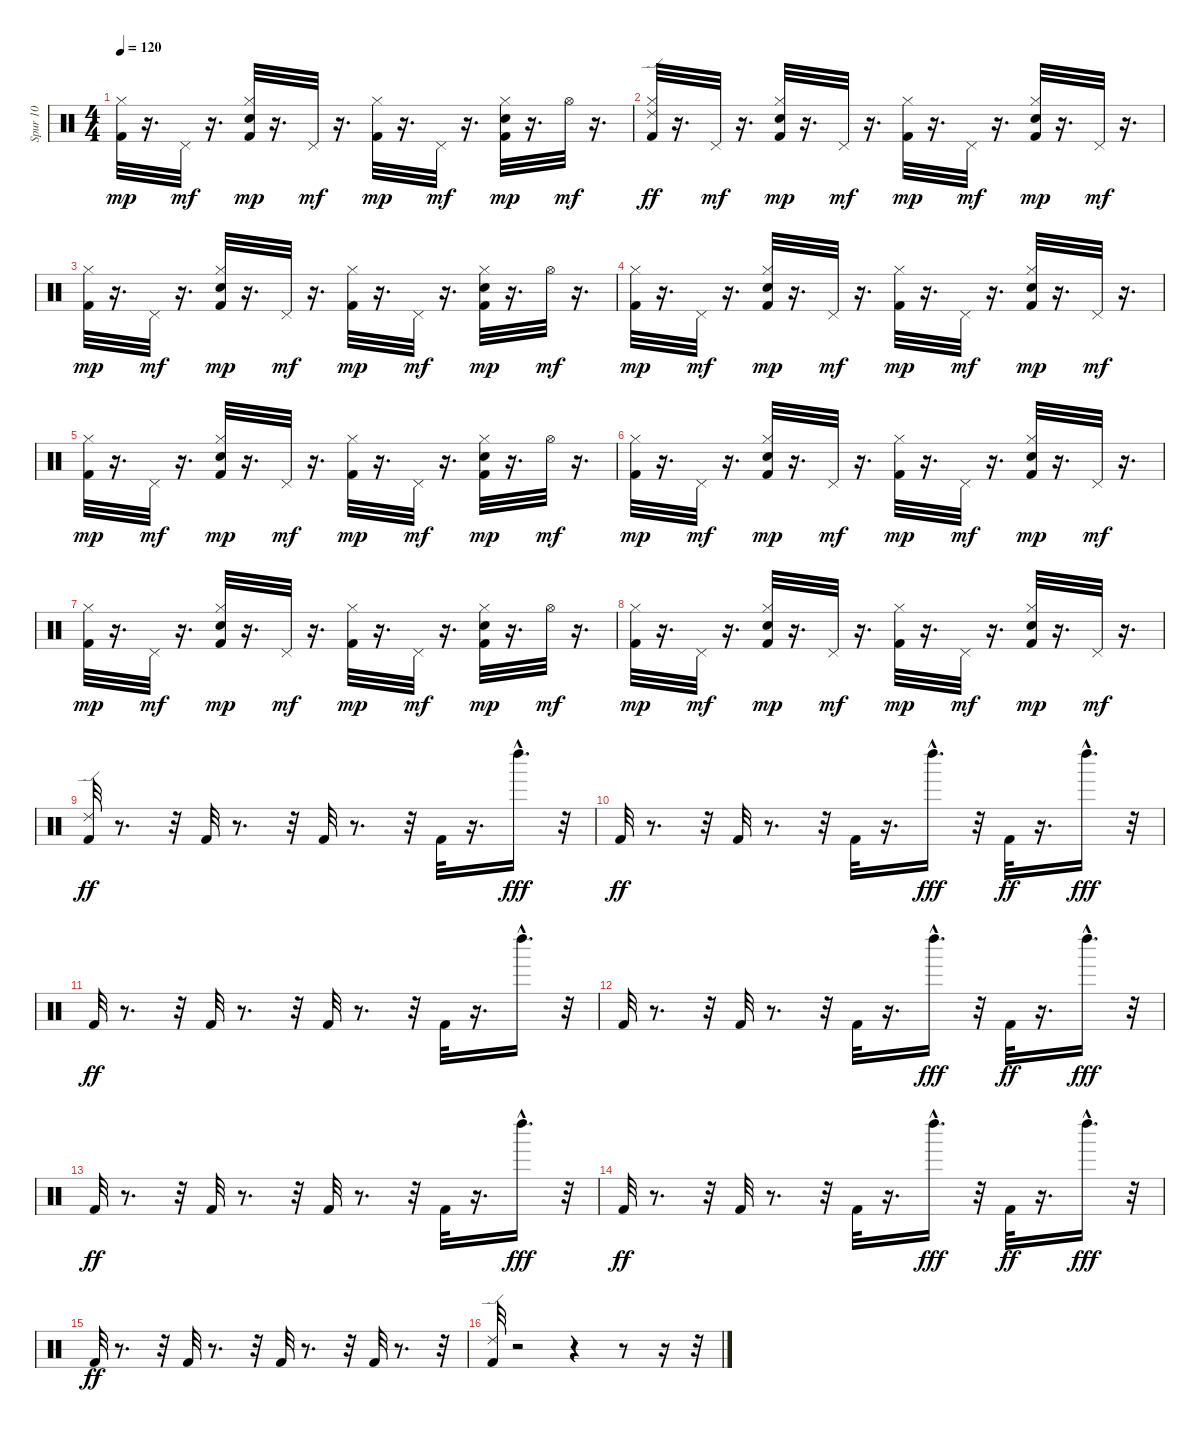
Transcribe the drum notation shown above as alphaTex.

\track ("Spur 10" "Spur 10") {instrument percussion}
\staff {score}
\articulation defaults
\ts (4 4)
\tempo 120
\clef neutral
\ks c
("Kick (hit) 2" "Hi-Hat (closed)").32{dy mp} r.16{d} "Pedal Hi-Hat (hit)".32{dy mf} r.16{d} ("Kick (hit) 2" "Electric Snare (hit)" "Hi-Hat (closed)").32{dy mp} r.16{d} "Pedal Hi-Hat (hit)".32{dy mf} r.16{d} ("Kick (hit) 2" "Hi-Hat (closed)").32{dy mp} r.16{d} "Pedal Hi-Hat (hit)".32{dy mf} r.16{d} ("Kick (hit) 2" "Electric Snare (hit)" "Hi-Hat (closed)").32{dy mp} r.16{d} "Hi-Hat (open)".32{dy mf} r.16{d} |
("Ride (edge) 2" "Hi-Hat (closed)" "Kick (hit) 2").32{dy ff} r.16{d} "Pedal Hi-Hat (hit)".32{dy mf} r.16{d} ("Hi-Hat (closed)" "Kick (hit) 2" "Electric Snare (hit)").32{dy mp} r.16{d} "Pedal Hi-Hat (hit)".32{dy mf} r.16{d} ("Kick (hit) 2" "Hi-Hat (closed)").32{dy mp} r.16{d} "Pedal Hi-Hat (hit)".32{dy mf} r.16{d} ("Kick (hit) 2" "Electric Snare (hit)" "Hi-Hat (closed)").32{dy mp} r.16{d} "Pedal Hi-Hat (hit)".32{dy mf} r.16{d} |
("Kick (hit) 2" "Hi-Hat (closed)").32{dy mp} r.16{d} "Pedal Hi-Hat (hit)".32{dy mf} r.16{d} ("Kick (hit) 2" "Electric Snare (hit)" "Hi-Hat (closed)").32{dy mp} r.16{d} "Pedal Hi-Hat (hit)".32{dy mf} r.16{d} ("Kick (hit) 2" "Hi-Hat (closed)").32{dy mp} r.16{d} "Pedal Hi-Hat (hit)".32{dy mf} r.16{d} ("Kick (hit) 2" "Electric Snare (hit)" "Hi-Hat (closed)").32{dy mp} r.16{d} "Hi-Hat (open)".32{dy mf} r.16{d} |
("Kick (hit) 2" "Hi-Hat (closed)").32{dy mp} r.16{d} "Pedal Hi-Hat (hit)".32{dy mf} r.16{d} ("Kick (hit) 2" "Electric Snare (hit)" "Hi-Hat (closed)").32{dy mp} r.16{d} "Pedal Hi-Hat (hit)".32{dy mf} r.16{d} ("Kick (hit) 2" "Hi-Hat (closed)").32{dy mp} r.16{d} "Pedal Hi-Hat (hit)".32{dy mf} r.16{d} ("Kick (hit) 2" "Electric Snare (hit)" "Hi-Hat (closed)").32{dy mp} r.16{d} "Pedal Hi-Hat (hit)".32{dy mf} r.16{d} |
("Kick (hit) 2" "Hi-Hat (closed)").32{dy mp} r.16{d} "Pedal Hi-Hat (hit)".32{dy mf} r.16{d} ("Kick (hit) 2" "Electric Snare (hit)" "Hi-Hat (closed)").32{dy mp} r.16{d} "Pedal Hi-Hat (hit)".32{dy mf} r.16{d} ("Kick (hit) 2" "Hi-Hat (closed)").32{dy mp} r.16{d} "Pedal Hi-Hat (hit)".32{dy mf} r.16{d} ("Kick (hit) 2" "Electric Snare (hit)" "Hi-Hat (closed)").32{dy mp} r.16{d} "Hi-Hat (open)".32{dy mf} r.16{d} |
("Kick (hit) 2" "Hi-Hat (closed)").32{dy mp} r.16{d} "Pedal Hi-Hat (hit)".32{dy mf} r.16{d} ("Kick (hit) 2" "Electric Snare (hit)" "Hi-Hat (closed)").32{dy mp} r.16{d} "Pedal Hi-Hat (hit)".32{dy mf} r.16{d} ("Kick (hit) 2" "Hi-Hat (closed)").32{dy mp} r.16{d} "Pedal Hi-Hat (hit)".32{dy mf} r.16{d} ("Kick (hit) 2" "Electric Snare (hit)" "Hi-Hat (closed)").32{dy mp} r.16{d} "Pedal Hi-Hat (hit)".32{dy mf} r.16{d} |
("Kick (hit) 2" "Hi-Hat (closed)").32{dy mp} r.16{d} "Pedal Hi-Hat (hit)".32{dy mf} r.16{d} ("Kick (hit) 2" "Electric Snare (hit)" "Hi-Hat (closed)").32{dy mp} r.16{d} "Pedal Hi-Hat (hit)".32{dy mf} r.16{d} ("Kick (hit) 2" "Hi-Hat (closed)").32{dy mp} r.16{d} "Pedal Hi-Hat (hit)".32{dy mf} r.16{d} ("Kick (hit) 2" "Electric Snare (hit)" "Hi-Hat (closed)").32{dy mp} r.16{d} "Hi-Hat (open)".32{dy mf} r.16{d} |
("Kick (hit) 2" "Hi-Hat (closed)").32{dy mp} r.16{d} "Pedal Hi-Hat (hit)".32{dy mf} r.16{d} ("Kick (hit) 2" "Electric Snare (hit)" "Hi-Hat (closed)").32{dy mp} r.16{d} "Pedal Hi-Hat (hit)".32{dy mf} r.16{d} ("Kick (hit) 2" "Hi-Hat (closed)").32{dy mp} r.16{d} "Pedal Hi-Hat (hit)".32{dy mf} r.16{d} ("Kick (hit) 2" "Electric Snare (hit)" "Hi-Hat (closed)").32{dy mp} r.16{d} "Pedal Hi-Hat (hit)".32{dy mf} r.16{d} |
("Kick (hit) 2" "Ride (edge) 2").32{dy ff} r.8{d} r.32 "Kick (hit) 2".32 r.8{d} r.32 "Kick (hit) 2".32 r.8{d} r.32 "Kick (hit) 2".32 r.16{d} "Left Maraca (hit)"{hac}.16{d dy fff} r.32 |
"Kick (hit) 2".32{dy ff} r.8{d} r.32 "Kick (hit) 2".32 r.8{d} r.32 "Kick (hit) 2".32 r.16{d} "Left Maraca (hit)"{hac}.16{d dy fff} r.32 "Kick (hit) 2".32{dy ff} r.16{d} "Left Maraca (hit)"{hac}.16{d dy fff} r.32 |
"Kick (hit) 2".32{dy ff} r.8{d} r.32 "Kick (hit) 2".32 r.8{d} r.32 "Kick (hit) 2".32 r.8{d} r.32 "Kick (hit) 2".32 r.16{d} "Left Maraca (hit)"{hac}.16{d} r.32 |
"Kick (hit) 2".32 r.8{d} r.32 "Kick (hit) 2".32 r.8{d} r.32 "Kick (hit) 2".32 r.16{d} "Left Maraca (hit)"{hac}.16{d dy fff} r.32 "Kick (hit) 2".32{dy ff} r.16{d} "Left Maraca (hit)"{hac}.16{d dy fff} r.32 |
"Kick (hit) 2".32{dy ff} r.8{d} r.32 "Kick (hit) 2".32 r.8{d} r.32 "Kick (hit) 2".32 r.8{d} r.32 "Kick (hit) 2".32 r.16{d} "Left Maraca (hit)"{hac}.16{d dy fff} r.32 |
"Kick (hit) 2".32{dy ff} r.8{d} r.32 "Kick (hit) 2".32 r.8{d} r.32 "Kick (hit) 2".32 r.16{d} "Left Maraca (hit)"{hac}.16{d dy fff} r.32 "Kick (hit) 2".32{dy ff} r.16{d} "Left Maraca (hit)"{hac}.16{d dy fff} r.32 |
"Kick (hit) 2".32{dy ff} r.8{d} r.32 "Kick (hit) 2".32 r.8{d} r.32 "Kick (hit) 2".32 r.8{d} r.32 "Kick (hit) 2".32 r.8{d} r.32 |
("Kick (hit) 2" "Ride (edge) 2").32 r.2 r.4 r.8 r.16 r.32
